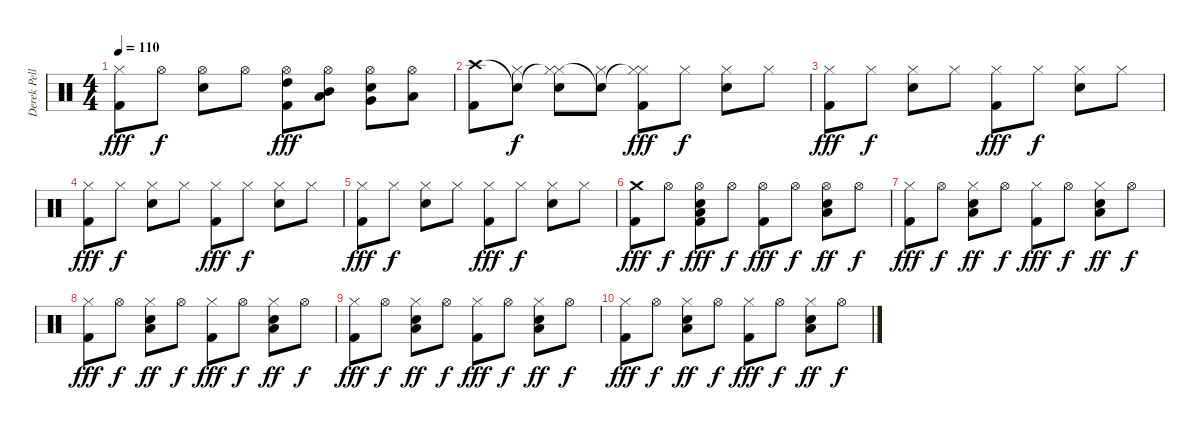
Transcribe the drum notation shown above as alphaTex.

\track ("Derek Pellici" "Derek Pell") {instrument percussion}
\staff {score}
\articulation defaults
\ts (4 4)
\tempo 110
\clef neutral
\ks c
("Hi-Hat (closed)" "Kick (hit) 2").8{dy fff} "Hi-Hat (open)".8{dy f} ("Hi-Hat (open)" "Snare (hit) 2").8 "Hi-Hat (open)".8 ("Hi-Hat (open)" "High Tom (hit)" "Kick (hit) 2").8{dy fff} ("Low Tom (hit)" "Hi-Hat (open)" "Mid Tom (hit)").8 ("Hi-Hat (open)" "Very Low Tom (hit)" "Snare (hit) 2").8 ("Hi-Hat (open)" "Low Floor Tom (hit)").8 |
("Crash high (hit)" "Kick (hit) 2").8 ("Snare (hit)"{t} "Hi-Hat (closed)").8{dy f} ("Hi-Hat (closed)"{t} "Hi-Hat (closed)" "Snare (hit) 2").8 ("Snare (hit)"{t} "Hi-Hat (closed)").8 ("Hi-Hat (closed)"{t} "Hi-Hat (closed)" "Kick (hit) 2").8{dy fff} "Hi-Hat (closed)".8{dy f} ("Hi-Hat (closed)" "Snare (hit) 2").8 "Hi-Hat (closed)".8 |
("Hi-Hat (closed)" "Kick (hit) 2").8{dy fff} "Hi-Hat (closed)".8{dy f} ("Hi-Hat (closed)" "Snare (hit) 2").8 "Hi-Hat (closed)".8 ("Hi-Hat (closed)" "Kick (hit) 2").8{dy fff} "Hi-Hat (closed)".8{dy f} ("Hi-Hat (closed)" "Snare (hit) 2").8 "Hi-Hat (closed)".8 |
("Hi-Hat (closed)" "Kick (hit) 2").8{dy fff} "Hi-Hat (closed)".8{dy f} ("Hi-Hat (closed)" "Snare (hit) 2").8 "Hi-Hat (closed)".8 ("Hi-Hat (closed)" "Kick (hit) 2").8{dy fff} "Hi-Hat (closed)".8{dy f} ("Hi-Hat (closed)" "Snare (hit) 2").8 "Hi-Hat (closed)".8 |
("Hi-Hat (closed)" "Kick (hit) 2").8{dy fff} "Hi-Hat (closed)".8{dy f} ("Hi-Hat (closed)" "Snare (hit) 2").8 "Hi-Hat (closed)".8 ("Hi-Hat (closed)" "Kick (hit) 2").8{dy fff} "Hi-Hat (closed)".8{dy f} ("Hi-Hat (closed)" "Snare (hit) 2").8 "Hi-Hat (closed)".8 |
("Crash medium (hit)" "Kick (hit) 2").8{dy fff} "Hi-Hat (open)".8{dy f} ("Hi-Hat (open)" "Low Floor Tom (hit)" "Snare (hit) 2" "Kick (hit) 2").8{dy fff} "Hi-Hat (open)".8{dy f} ("Hi-Hat (open)" "Kick (hit) 2").8{dy fff} "Hi-Hat (open)".8{dy f} ("Hi-Hat (open)" "Low Floor Tom (hit)" "Snare (hit) 2").8{dy ff} "Hi-Hat (open)".8{dy f} |
("Hi-Hat (closed)" "Kick (hit) 2").8{dy fff} "Hi-Hat (open)".8{dy f} ("Hi-Hat (closed)" "Low Floor Tom (hit)" "Snare (hit) 2").8{dy ff} "Hi-Hat (open)".8{dy f} ("Hi-Hat (closed)" "Kick (hit) 2").8{dy fff} "Hi-Hat (open)".8{dy f} ("Hi-Hat (closed)" "Low Floor Tom (hit)" "Snare (hit) 2").8{dy ff} "Hi-Hat (open)".8{dy f} |
("Hi-Hat (closed)" "Kick (hit) 2").8{dy fff} "Hi-Hat (open)".8{dy f} ("Hi-Hat (closed)" "Low Floor Tom (hit)" "Snare (hit) 2").8{dy ff} "Hi-Hat (open)".8{dy f} ("Hi-Hat (closed)" "Kick (hit) 2").8{dy fff} "Hi-Hat (open)".8{dy f} ("Hi-Hat (closed)" "Low Floor Tom (hit)" "Snare (hit) 2").8{dy ff} "Hi-Hat (open)".8{dy f} |
("Hi-Hat (closed)" "Kick (hit) 2").8{dy fff} "Hi-Hat (open)".8{dy f} ("Hi-Hat (closed)" "Low Floor Tom (hit)" "Snare (hit) 2").8{dy ff} "Hi-Hat (open)".8{dy f} ("Hi-Hat (closed)" "Kick (hit) 2").8{dy fff} "Hi-Hat (open)".8{dy f} ("Hi-Hat (closed)" "Low Floor Tom (hit)" "Snare (hit) 2").8{dy ff} "Hi-Hat (open)".8{dy f} |
("Hi-Hat (closed)" "Kick (hit) 2").8{dy fff} "Hi-Hat (open)".8{dy f} ("Hi-Hat (closed)" "Low Floor Tom (hit)" "Snare (hit) 2").8{dy ff} "Hi-Hat (open)".8{dy f} ("Hi-Hat (closed)" "Kick (hit) 2").8{dy fff} "Hi-Hat (open)".8{dy f} ("Hi-Hat (closed)" "Low Floor Tom (hit)" "Snare (hit) 2").8{dy ff} "Hi-Hat (open)".8{dy f}
